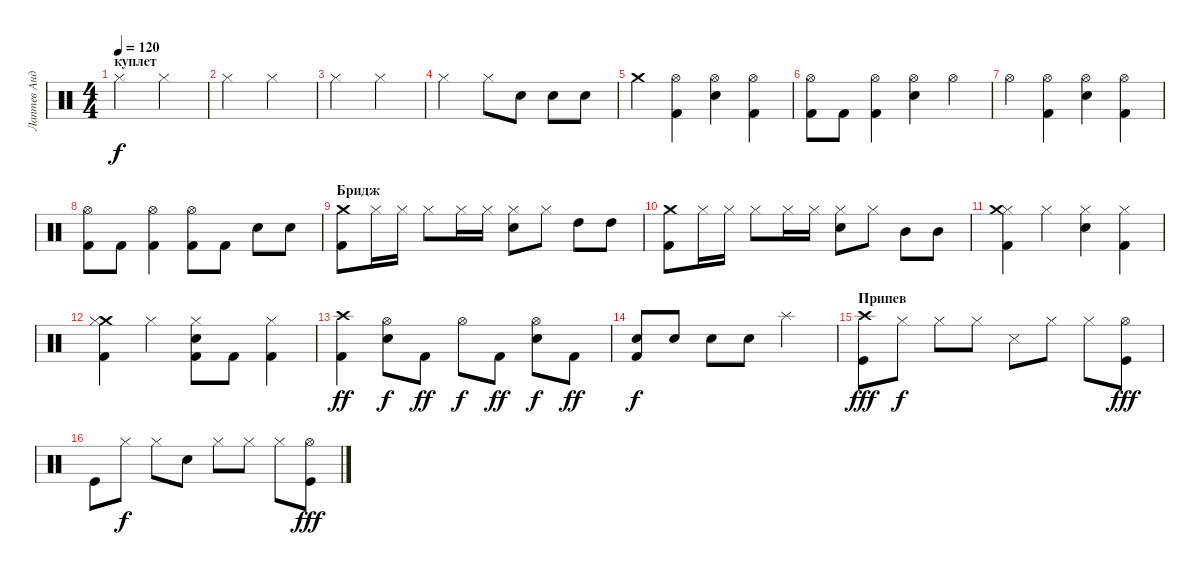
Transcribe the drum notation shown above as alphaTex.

\track ("Лаптев Андрей" "Лаптев Анд") {instrument percussion}
\staff {score}
\articulation defaults
\ts (4 4)
\section ("" "куплет")
\tempo 120
\clef neutral
\ks c "Hi-Hat (closed)".2{dy f} "Hi-Hat (closed)".2
|
"Hi-Hat (closed)".2 "Hi-Hat (closed)".2 |
"Hi-Hat (closed)".2 "Hi-Hat (closed)".2 |
"Hi-Hat (closed)".2 "Hi-Hat (closed)".8 "Electric Snare (hit)".8 "Electric Snare (hit)".8 "Electric Snare (hit)".8 |
"Crash medium (hit)".4 ("Hi-Hat (open)" "Kick (hit) 2").4 ("Hi-Hat (open)" "Electric Snare (hit)").4 ("Hi-Hat (open)" "Kick (hit) 2").4 |
("Hi-Hat (open)" "Kick (hit) 2").8 "Kick (hit) 2".8 ("Hi-Hat (open)" "Kick (hit) 2").4 ("Hi-Hat (open)" "Electric Snare (hit)").4 "Hi-Hat (open)".4 |
"Hi-Hat (open)".4 ("Hi-Hat (open)" "Kick (hit) 2").4 ("Hi-Hat (open)" "Electric Snare (hit)").4 ("Hi-Hat (open)" "Kick (hit) 2").4 |
("Hi-Hat (open)" "Kick (hit) 2").8 "Kick (hit) 2".8 ("Hi-Hat (open)" "Kick (hit) 2").4 ("Hi-Hat (open)" "Kick (hit) 2").8 "Kick (hit) 2".8 "Electric Snare (hit)".8 "Electric Snare (hit)".8 |
\section ("" "Бридж")
("Crash medium (hit)" "Kick (hit) 2").8 "Hi-Hat (closed)".16 "Hi-Hat (closed)".16 "Hi-Hat (closed)".8 "Hi-Hat (closed)".16 "Hi-Hat (closed)".16 ("Hi-Hat (closed)" "Electric Snare (hit)").8 "Hi-Hat (closed)".8 "High Tom (hit)".8 "High Tom (hit)".8 |
("Crash medium (hit)" "Kick (hit) 2").8 "Hi-Hat (closed)".16 "Hi-Hat (closed)".16 "Hi-Hat (closed)".8 "Hi-Hat (closed)".16 "Hi-Hat (closed)".16 ("Hi-Hat (closed)" "Electric Snare (hit)").8 "Hi-Hat (closed)".8 "Mid Tom (hit)".8 "Mid Tom (hit)".8 |
("Hi-Hat (closed)" "Crash medium (hit)" "Kick (hit) 2").4 "Hi-Hat (closed)".4 ("Hi-Hat (closed)" "Electric Snare (hit)").4 ("Kick (hit) 2" "Hi-Hat (closed)").4 |
("Crash medium (hit)" "Kick (hit) 2" "Hi-Hat (closed)").4 "Hi-Hat (closed)".4 ("Hi-Hat (closed)" "Electric Snare (hit)" "Kick (hit) 2").8 "Kick (hit) 2".8 ("Kick (hit) 2" "Hi-Hat (closed)").4 |
("Crash high (hit)" "Kick (hit) 2").4{dy ff} ("Hi-Hat (open)" "Electric Snare (hit)").8{dy f} "Kick (hit) 2".8{dy ff} "Hi-Hat (open)".8{dy f} "Kick (hit) 2".8{dy ff} ("Hi-Hat (open)" "Electric Snare (hit)").8{dy f} "Kick (hit) 2".8{dy ff} |
("Electric Snare (hit)" "Kick (hit) 2").8{dy f} "Electric Snare (hit)".8 "Electric Snare (hit)".8 "Electric Snare (hit)".8 "Splash (hit)".2 |
\section ("" "Припев")
("Kick (hit)" "Crash high (hit)").8{dy fff} "Hi-Hat (closed)".8{dy f} "Hi-Hat (closed)".8 "Hi-Hat (closed)".8 "Snare (side stick) 3".8 "Hi-Hat (closed)".8 "Hi-Hat (closed)".8 ("Hi-Hat (open)" "Kick (hit)").8{dy fff} |
"Kick (hit)".8 "Hi-Hat (closed)".8{dy f} "Hi-Hat (closed)".8 "Snare (hit) 2".8 "Hi-Hat (closed)".8 "Hi-Hat (closed)".8 "Hi-Hat (closed)".8 ("Kick (hit)" "Hi-Hat (open)").8{dy fff}
